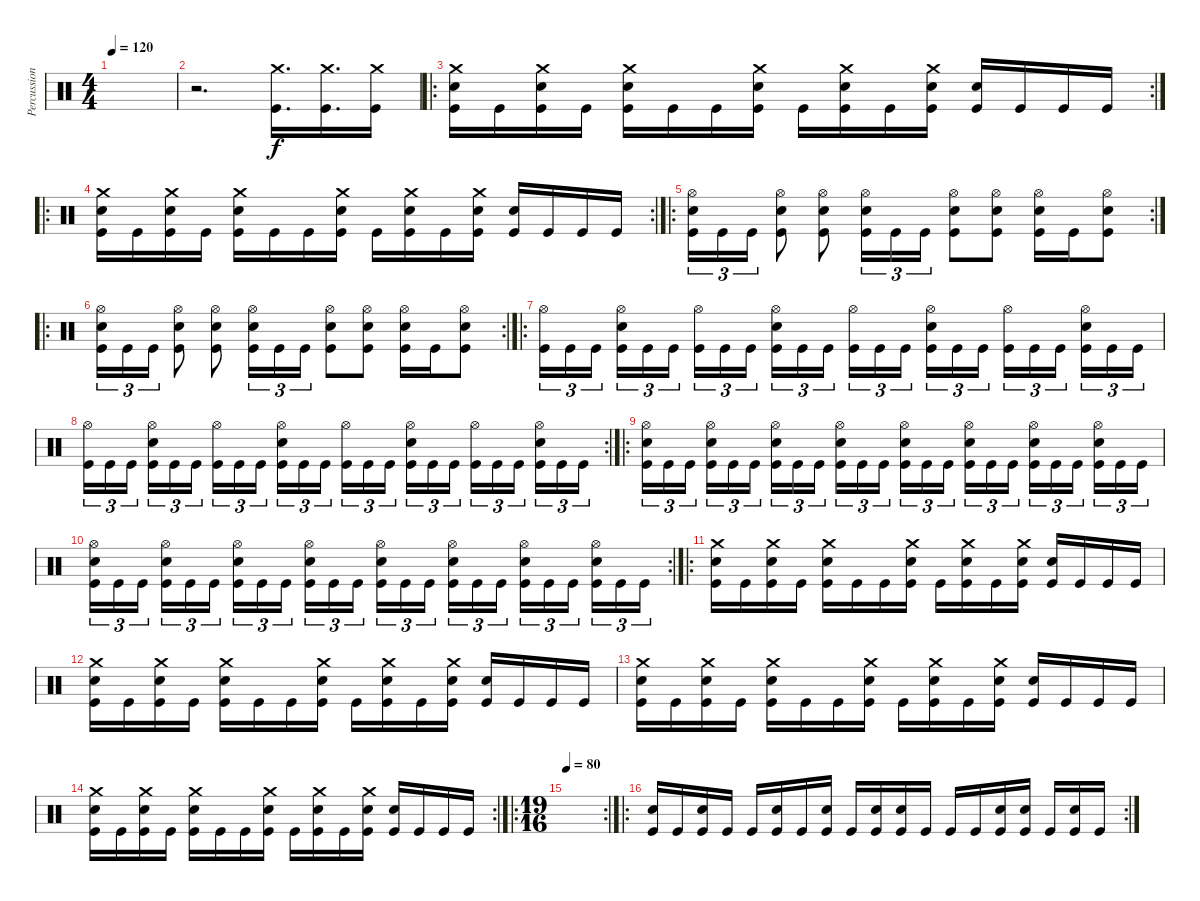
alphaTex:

\track ("Percussion" "Percussion") {instrument percussion}
\staff {score}
\articulation defaults
\ts (4 4)
\tempo 120
\clef neutral
\ks c
|
r.2{d} ("Crash medium (hit)" "Kick (hit)").16{d} ("Crash medium (hit)" "Kick (hit)").16{d} ("Crash medium (hit)" "Kick (hit)").16 |
\ro
\rc 2
("Crash medium (hit)" "Snare (hit) 2" "Kick (hit)").16 "Kick (hit)".16 ("Crash medium (hit)" "Snare (hit) 2" "Kick (hit)").16 "Kick (hit)".16 ("Crash medium (hit)" "Snare (hit) 2" "Kick (hit)").16 "Kick (hit)".16 "Kick (hit)".16 ("Crash medium (hit)" "Snare (hit) 2" "Kick (hit)").16 "Kick (hit)".16 ("Crash medium (hit)" "Snare (hit) 2" "Kick (hit)").16 "Kick (hit)".16 ("Crash medium (hit)" "Snare (hit) 2" "Kick (hit)").16 ("Snare (hit) 2" "Kick (hit)").16 "Kick (hit)".16 "Kick (hit)".16 "Kick (hit)".16 |
\ro
\rc 2
("Crash medium (hit)" "Snare (hit) 2" "Kick (hit)").16 "Kick (hit)".16 ("Crash medium (hit)" "Snare (hit) 2" "Kick (hit)").16 "Kick (hit)".16 ("Crash medium (hit)" "Snare (hit) 2" "Kick (hit)").16 "Kick (hit)".16 "Kick (hit)".16 ("Crash medium (hit)" "Snare (hit) 2" "Kick (hit)").16 "Kick (hit)".16 ("Crash medium (hit)" "Snare (hit) 2" "Kick (hit)").16 "Kick (hit)".16 ("Crash medium (hit)" "Snare (hit) 2" "Kick (hit)").16 ("Snare (hit) 2" "Kick (hit)").16 "Kick (hit)".16 "Kick (hit)".16 "Kick (hit)".16 |
\ro
\rc 2
("Hi-Hat (open)" "Snare (hit) 2" "Kick (hit)").16{tu (3 2)} "Kick (hit)".16{tu (3 2)} "Kick (hit)".16{tu (3 2)} ("Hi-Hat (open)" "Snare (hit) 2" "Kick (hit)").8 ("Hi-Hat (open)" "Snare (hit) 2" "Kick (hit)").8 ("Hi-Hat (open)" "Snare (hit) 2" "Kick (hit)").16{tu (3 2)} "Kick (hit)".16{tu (3 2)} "Kick (hit)".16{tu (3 2)} ("Hi-Hat (open)" "Snare (hit) 2" "Kick (hit)").8 ("Hi-Hat (open)" "Snare (hit) 2" "Kick (hit)").8 ("Hi-Hat (open)" "Snare (hit) 2" "Kick (hit)").16 "Kick (hit)".16 ("Hi-Hat (open)" "Snare (hit) 2" "Kick (hit)").8 |
\ro
\rc 2
("Hi-Hat (open)" "Snare (hit) 2" "Kick (hit)").16{tu (3 2)} "Kick (hit)".16{tu (3 2)} "Kick (hit)".16{tu (3 2)} ("Hi-Hat (open)" "Snare (hit) 2" "Kick (hit)").8 ("Hi-Hat (open)" "Snare (hit) 2" "Kick (hit)").8 ("Hi-Hat (open)" "Snare (hit) 2" "Kick (hit)").16{tu (3 2)} "Kick (hit)".16{tu (3 2)} "Kick (hit)".16{tu (3 2)} ("Hi-Hat (open)" "Snare (hit) 2" "Kick (hit)").8 ("Hi-Hat (open)" "Snare (hit) 2" "Kick (hit)").8 ("Hi-Hat (open)" "Snare (hit) 2" "Kick (hit)").16 "Kick (hit)".16 ("Hi-Hat (open)" "Snare (hit) 2" "Kick (hit)").8 |
\ro
("Hi-Hat (open)" "Kick (hit)").16{tu (3 2)} "Kick (hit)".16{tu (3 2)} "Kick (hit)".16{tu (3 2) beam splitsecondary} ("Hi-Hat (open)" "Snare (hit) 2" "Kick (hit)").16{tu (3 2)} "Kick (hit)".16{tu (3 2)} "Kick (hit)".16{tu (3 2)} ("Hi-Hat (open)" "Kick (hit)").16{tu (3 2)} "Kick (hit)".16{tu (3 2)} "Kick (hit)".16{tu (3 2) beam splitsecondary} ("Hi-Hat (open)" "Snare (hit) 2" "Kick (hit)").16{tu (3 2)} "Kick (hit)".16{tu (3 2)} "Kick (hit)".16{tu (3 2)} ("Hi-Hat (open)" "Kick (hit)").16{tu (3 2)} "Kick (hit)".16{tu (3 2)} "Kick (hit)".16{tu (3 2) beam splitsecondary} ("Hi-Hat (open)" "Snare (hit) 2" "Kick (hit)").16{tu (3 2)} "Kick (hit)".16{tu (3 2)} "Kick (hit)".16{tu (3 2)} ("Hi-Hat (open)" "Kick (hit)").16{tu (3 2)} "Kick (hit)".16{tu (3 2)} "Kick (hit)".16{tu (3 2) beam splitsecondary} ("Hi-Hat (open)" "Snare (hit) 2" "Kick (hit)").16{tu (3 2)} "Kick (hit)".16{tu (3 2)} "Kick (hit)".16{tu (3 2)} |
\rc 2
("Hi-Hat (open)" "Kick (hit)").16{tu (3 2)} "Kick (hit)".16{tu (3 2)} "Kick (hit)".16{tu (3 2) beam splitsecondary} ("Hi-Hat (open)" "Snare (hit) 2" "Kick (hit)").16{tu (3 2)} "Kick (hit)".16{tu (3 2)} "Kick (hit)".16{tu (3 2)} ("Hi-Hat (open)" "Kick (hit)").16{tu (3 2)} "Kick (hit)".16{tu (3 2)} "Kick (hit)".16{tu (3 2) beam splitsecondary} ("Hi-Hat (open)" "Snare (hit) 2" "Kick (hit)").16{tu (3 2)} "Kick (hit)".16{tu (3 2)} "Kick (hit)".16{tu (3 2)} ("Hi-Hat (open)" "Kick (hit)").16{tu (3 2)} "Kick (hit)".16{tu (3 2)} "Kick (hit)".16{tu (3 2) beam splitsecondary} ("Hi-Hat (open)" "Snare (hit) 2" "Kick (hit)").16{tu (3 2)} "Kick (hit)".16{tu (3 2)} "Kick (hit)".16{tu (3 2)} ("Hi-Hat (open)" "Kick (hit)").16{tu (3 2)} "Kick (hit)".16{tu (3 2)} "Kick (hit)".16{tu (3 2) beam splitsecondary} ("Hi-Hat (open)" "Snare (hit) 2" "Kick (hit)").16{tu (3 2)} "Kick (hit)".16{tu (3 2)} "Kick (hit)".16{tu (3 2)} |
\ro
("Hi-Hat (open)" "Snare (hit) 2" "Kick (hit)").16{tu (3 2)} "Kick (hit)".16{tu (3 2)} "Kick (hit)".16{tu (3 2) beam splitsecondary} ("Hi-Hat (open)" "Snare (hit) 2" "Kick (hit)").16{tu (3 2)} "Kick (hit)".16{tu (3 2)} "Kick (hit)".16{tu (3 2)} ("Hi-Hat (open)" "Snare (hit) 2" "Kick (hit)").16{tu (3 2)} "Kick (hit)".16{tu (3 2)} "Kick (hit)".16{tu (3 2) beam splitsecondary} ("Hi-Hat (open)" "Snare (hit) 2" "Kick (hit)").16{tu (3 2)} "Kick (hit)".16{tu (3 2)} "Kick (hit)".16{tu (3 2)} ("Hi-Hat (open)" "Snare (hit) 2" "Kick (hit)").16{tu (3 2)} "Kick (hit)".16{tu (3 2)} "Kick (hit)".16{tu (3 2) beam splitsecondary} ("Hi-Hat (open)" "Snare (hit) 2" "Kick (hit)").16{tu (3 2)} "Kick (hit)".16{tu (3 2)} "Kick (hit)".16{tu (3 2)} ("Hi-Hat (open)" "Snare (hit) 2" "Kick (hit)").16{tu (3 2)} "Kick (hit)".16{tu (3 2)} "Kick (hit)".16{tu (3 2) beam splitsecondary} ("Hi-Hat (open)" "Snare (hit) 2" "Kick (hit)").16{tu (3 2)} "Kick (hit)".16{tu (3 2)} "Kick (hit)".16{tu (3 2)} |
\rc 2
("Hi-Hat (open)" "Snare (hit) 2" "Kick (hit)").16{tu (3 2)} "Kick (hit)".16{tu (3 2)} "Kick (hit)".16{tu (3 2) beam splitsecondary} ("Hi-Hat (open)" "Snare (hit) 2" "Kick (hit)").16{tu (3 2)} "Kick (hit)".16{tu (3 2)} "Kick (hit)".16{tu (3 2)} ("Hi-Hat (open)" "Snare (hit) 2" "Kick (hit)").16{tu (3 2)} "Kick (hit)".16{tu (3 2)} "Kick (hit)".16{tu (3 2) beam splitsecondary} ("Hi-Hat (open)" "Snare (hit) 2" "Kick (hit)").16{tu (3 2)} "Kick (hit)".16{tu (3 2)} "Kick (hit)".16{tu (3 2)} ("Hi-Hat (open)" "Snare (hit) 2" "Kick (hit)").16{tu (3 2)} "Kick (hit)".16{tu (3 2)} "Kick (hit)".16{tu (3 2) beam splitsecondary} ("Hi-Hat (open)" "Snare (hit) 2" "Kick (hit)").16{tu (3 2)} "Kick (hit)".16{tu (3 2)} "Kick (hit)".16{tu (3 2)} ("Hi-Hat (open)" "Snare (hit) 2" "Kick (hit)").16{tu (3 2)} "Kick (hit)".16{tu (3 2)} "Kick (hit)".16{tu (3 2) beam splitsecondary} ("Hi-Hat (open)" "Snare (hit) 2" "Kick (hit)").16{tu (3 2)} "Kick (hit)".16{tu (3 2)} "Kick (hit)".16{tu (3 2)} |
\ro
("Crash medium (hit)" "Snare (hit) 2" "Kick (hit)").16 "Kick (hit)".16 ("Crash medium (hit)" "Snare (hit) 2" "Kick (hit)").16 "Kick (hit)".16 ("Crash medium (hit)" "Snare (hit) 2" "Kick (hit)").16 "Kick (hit)".16 "Kick (hit)".16 ("Crash medium (hit)" "Snare (hit) 2" "Kick (hit)").16 "Kick (hit)".16 ("Crash medium (hit)" "Snare (hit) 2" "Kick (hit)").16 "Kick (hit)".16 ("Crash medium (hit)" "Snare (hit) 2" "Kick (hit)").16 ("Snare (hit) 2" "Kick (hit)").16 "Kick (hit)".16 "Kick (hit)".16 "Kick (hit)".16 |
("Crash medium (hit)" "Snare (hit) 2" "Kick (hit)").16 "Kick (hit)".16 ("Crash medium (hit)" "Snare (hit) 2" "Kick (hit)").16 "Kick (hit)".16 ("Crash medium (hit)" "Snare (hit) 2" "Kick (hit)").16 "Kick (hit)".16 "Kick (hit)".16 ("Crash medium (hit)" "Snare (hit) 2" "Kick (hit)").16 "Kick (hit)".16 ("Crash medium (hit)" "Snare (hit) 2" "Kick (hit)").16 "Kick (hit)".16 ("Crash medium (hit)" "Snare (hit) 2" "Kick (hit)").16 ("Snare (hit) 2" "Kick (hit)").16 "Kick (hit)".16 "Kick (hit)".16 "Kick (hit)".16 |
("Crash medium (hit)" "Snare (hit) 2" "Kick (hit)").16 "Kick (hit)".16 ("Crash medium (hit)" "Snare (hit) 2" "Kick (hit)").16 "Kick (hit)".16 ("Crash medium (hit)" "Snare (hit) 2" "Kick (hit)").16 "Kick (hit)".16 "Kick (hit)".16 ("Crash medium (hit)" "Snare (hit) 2" "Kick (hit)").16 "Kick (hit)".16 ("Crash medium (hit)" "Snare (hit) 2" "Kick (hit)").16 "Kick (hit)".16 ("Crash medium (hit)" "Snare (hit) 2" "Kick (hit)").16 ("Snare (hit) 2" "Kick (hit)").16 "Kick (hit)".16 "Kick (hit)".16 "Kick (hit)".16 |
\rc 2
("Crash medium (hit)" "Snare (hit) 2" "Kick (hit)").16 "Kick (hit)".16 ("Crash medium (hit)" "Snare (hit) 2" "Kick (hit)").16 "Kick (hit)".16 ("Crash medium (hit)" "Snare (hit) 2" "Kick (hit)").16 "Kick (hit)".16 "Kick (hit)".16 ("Crash medium (hit)" "Snare (hit) 2" "Kick (hit)").16 "Kick (hit)".16 ("Crash medium (hit)" "Snare (hit) 2" "Kick (hit)").16 "Kick (hit)".16 ("Crash medium (hit)" "Snare (hit) 2" "Kick (hit)").16 ("Snare (hit) 2" "Kick (hit)").16 "Kick (hit)".16 "Kick (hit)".16 "Kick (hit)".16 |
\ro
\rc 2
\ts (19 16)
\tempo 80
|
\ro
\rc 2
("Snare (hit) 2" "Kick (hit)").16 "Kick (hit)".16 ("Snare (hit) 2" "Kick (hit)").16 "Kick (hit)".16 "Kick (hit)".16 ("Snare (hit) 2" "Kick (hit)").16 "Kick (hit)".16 ("Snare (hit) 2" "Kick (hit)").16 "Kick (hit)".16 ("Snare (hit) 2" "Kick (hit)").16 ("Snare (hit) 2" "Kick (hit)").16 "Kick (hit)".16 "Kick (hit)".16 "Kick (hit)".16 ("Snare (hit) 2" "Kick (hit)").16 ("Snare (hit) 2" "Kick (hit)").16 "Kick (hit)".16 ("Snare (hit) 2" "Kick (hit)").16 "Kick (hit)".16
